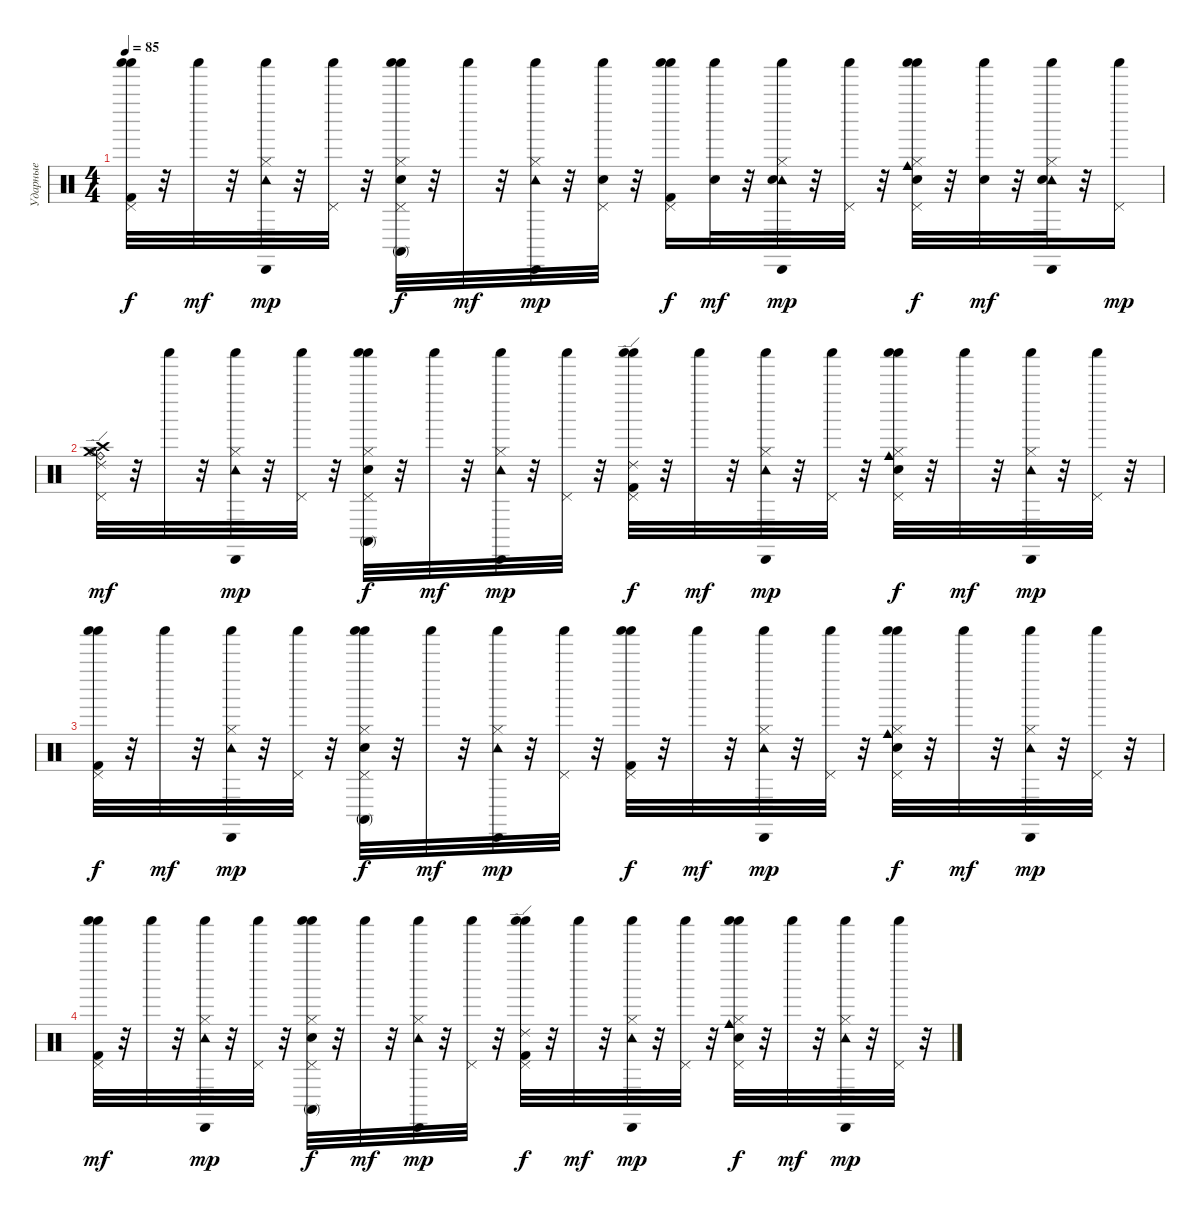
\track ("Ударные" "Ударные") {instrument percussion}
\staff {score}
\articulation defaults
\ts (4 4)
\tempo 85
\clef neutral
\ks c
("Pedal Hi-Hat (hit)" "Shaker (hit)" "Shaker (hit)" "Kick (hit) 2").32{dy f} r.32 "Shaker (hit)".32{dy mf} r.32 ("Hi-Hat (closed)" "Cabasa (hit)" "Shaker (hit)" "Tambourine (hit)").32{dy mp} r.32 ("Pedal Hi-Hat (hit)" "Shaker (hit)").32 r.32 ("Hi-Hat (closed)" "Conga high (mute)" "Pedal Hi-Hat (hit)" "Shaker (hit)" "Shaker (hit)" "Snare (hit) 2").32{dy f} r.32 "Shaker (hit)".32{dy mf} r.32 ("Hi-Hat (closed)" "Cabasa (hit)" "Shaker (hit)" "Tambourine (hit)").32{dy mp} r.32 ("Pedal Hi-Hat (hit)" "Shaker (hit)" "Snare (hit) 2").32 r.32 ("Pedal Hi-Hat (hit)" "Shaker (hit)" "Shaker (hit)" "Kick (hit) 2").16{dy f} ("Shaker (hit)" "Snare (hit) 2").32{dy mf} r.32 ("Hi-Hat (closed)" "Cabasa (hit)" "Shaker (hit)" "Tambourine (hit)" "Snare (hit) 2").32{dy mp} r.32 ("Pedal Hi-Hat (hit)" "Shaker (hit)").32 r.32 ("Cowbell medium (hit)" "Hi-Hat (closed)" "Pedal Hi-Hat (hit)" "Shaker (hit)" "Shaker (hit)" "Snare (hit) 2").32{dy f} r.32 ("Shaker (hit)" "Snare (hit) 2").32{dy mf} r.32 ("Hi-Hat (closed)" "Cabasa (hit)" "Shaker (hit)" "Tambourine (hit)" "Snare (hit) 2").32 r.32 ("Pedal Hi-Hat (hit)" "Shaker (hit)").16{dy mp} |
("Ride (bell)" "Hi-Hat (open)" "Crash high (hit)" "Ride (edge) 2" "Crash medium (hit)" "Pedal Hi-Hat (hit)").32{dy mf} r.32 "Shaker (hit)".32 r.32 ("Hi-Hat (closed)" "Cabasa (hit)" "Shaker (hit)" "Tambourine (hit)").32{dy mp} r.32 ("Pedal Hi-Hat (hit)" "Shaker (hit)").32 r.32 ("Hi-Hat (closed)" "Conga high (mute)" "Pedal Hi-Hat (hit)" "Shaker (hit)" "Shaker (hit)" "Snare (hit) 2").32{dy f} r.32 "Shaker (hit)".32{dy mf} r.32 ("Hi-Hat (closed)" "Cabasa (hit)" "Shaker (hit)" "Tambourine (hit)").32{dy mp} r.32 ("Pedal Hi-Hat (hit)" "Shaker (hit)").32 r.32 ("Ride (edge) 2" "Pedal Hi-Hat (hit)" "Shaker (hit)" "Shaker (hit)" "Kick (hit) 2").32{dy f} r.32 "Shaker (hit)".32{dy mf} r.32 ("Hi-Hat (closed)" "Cabasa (hit)" "Shaker (hit)" "Tambourine (hit)").32{dy mp} r.32 ("Pedal Hi-Hat (hit)" "Shaker (hit)").32 r.32 ("Cowbell medium (hit)" "Hi-Hat (closed)" "Pedal Hi-Hat (hit)" "Shaker (hit)" "Shaker (hit)" "Snare (hit) 2").32{dy f} r.32 "Shaker (hit)".32{dy mf} r.32 ("Hi-Hat (closed)" "Cabasa (hit)" "Shaker (hit)" "Tambourine (hit)").32{dy mp} r.32 ("Pedal Hi-Hat (hit)" "Shaker (hit)").32 r.32 |
("Pedal Hi-Hat (hit)" "Shaker (hit)" "Shaker (hit)" "Kick (hit) 2").32{dy f volume 12} r.32 "Shaker (hit)".32{dy mf volume 12} r.32 ("Hi-Hat (closed)" "Cabasa (hit)" "Shaker (hit)" "Tambourine (hit)").32{dy mp volume 12} r.32 ("Pedal Hi-Hat (hit)" "Shaker (hit)").32{volume 12} r.32 ("Hi-Hat (closed)" "Conga high (mute)" "Pedal Hi-Hat (hit)" "Shaker (hit)" "Shaker (hit)" "Snare (hit) 2").32{dy f volume 11} r.32 "Shaker (hit)".32{dy mf volume 11} r.32 ("Hi-Hat (closed)" "Cabasa (hit)" "Shaker (hit)" "Tambourine (hit)").32{dy mp volume 11} r.32 ("Pedal Hi-Hat (hit)" "Shaker (hit)").32{volume 11} r.32 ("Pedal Hi-Hat (hit)" "Shaker (hit)" "Shaker (hit)" "Kick (hit) 2").32{dy f volume 11} r.32 "Shaker (hit)".32{dy mf volume 11} r.32 ("Hi-Hat (closed)" "Cabasa (hit)" "Shaker (hit)" "Tambourine (hit)").32{dy mp volume 11} r.32 ("Pedal Hi-Hat (hit)" "Shaker (hit)").32{volume 11} r.32 ("Cowbell medium (hit)" "Hi-Hat (closed)" "Pedal Hi-Hat (hit)" "Shaker (hit)" "Shaker (hit)" "Snare (hit) 2").32{dy f volume 11} r.32 "Shaker (hit)".32{dy mf volume 11} r.32 ("Hi-Hat (closed)" "Cabasa (hit)" "Shaker (hit)" "Tambourine (hit)").32{dy mp volume 10} r.32 ("Pedal Hi-Hat (hit)" "Shaker (hit)").32{volume 10} r.32 |
("Pedal Hi-Hat (hit)" "Shaker (hit)" "Shaker (hit)" "Kick (hit) 2").32{dy mf volume 10} r.32 "Shaker (hit)".32{volume 10} r.32 ("Hi-Hat (closed)" "Cabasa (hit)" "Shaker (hit)" "Tambourine (hit)").32{dy mp volume 10} r.32 ("Pedal Hi-Hat (hit)" "Shaker (hit)").32{volume 10} r.32 ("Hi-Hat (closed)" "Conga high (mute)" "Pedal Hi-Hat (hit)" "Shaker (hit)" "Shaker (hit)" "Snare (hit) 2").32{dy f volume 10} r.32 "Shaker (hit)".32{dy mf volume 10} r.32 ("Hi-Hat (closed)" "Cabasa (hit)" "Shaker (hit)" "Tambourine (hit)").32{dy mp volume 10} r.32 ("Pedal Hi-Hat (hit)" "Shaker (hit)").32{volume 10} r.32 ("Ride (edge) 2" "Pedal Hi-Hat (hit)" "Shaker (hit)" "Shaker (hit)" "Kick (hit) 2").32{dy f volume 10} r.32 "Shaker (hit)".32{dy mf volume 10} r.32 ("Hi-Hat (closed)" "Cabasa (hit)" "Shaker (hit)" "Tambourine (hit)").32{dy mp volume 10} r.32 ("Pedal Hi-Hat (hit)" "Shaker (hit)").32{volume 10} r.32 ("Cowbell medium (hit)" "Hi-Hat (closed)" "Pedal Hi-Hat (hit)" "Shaker (hit)" "Shaker (hit)" "Snare (hit) 2").32{dy f volume 10} r.32 "Shaker (hit)".32{dy mf volume 9} r.32 ("Hi-Hat (closed)" "Cabasa (hit)" "Shaker (hit)" "Tambourine (hit)").32{dy mp volume 9} r.32 ("Pedal Hi-Hat (hit)" "Shaker (hit)").32{volume 9} r.32
